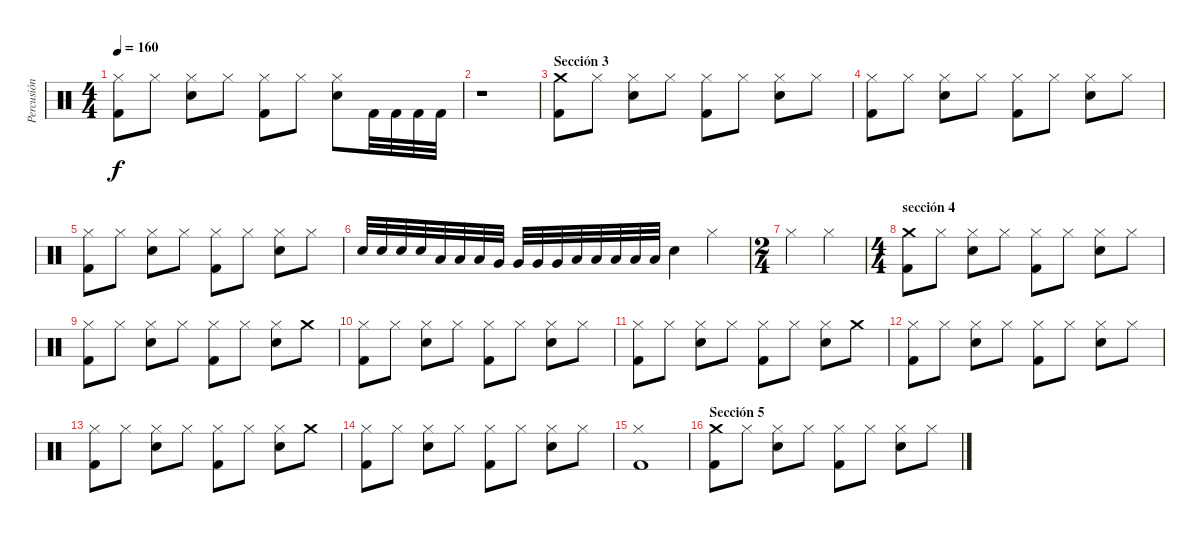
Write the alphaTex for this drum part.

\track ("Percusión" "Percusión") {instrument percussion}
\staff {score}
\articulation defaults
\ts (4 4)
\tempo 160
\clef neutral
\ks c
("Hi-Hat (closed)" "Kick (hit) 2").8{dy f} "Hi-Hat (closed)".8 ("Hi-Hat (closed)" "Snare (hit) 2").8 "Hi-Hat (closed)".8 ("Hi-Hat (closed)" "Kick (hit) 2").8 "Hi-Hat (closed)".8 ("Hi-Hat (closed)" "Snare (hit) 2").8 "Kick (hit) 2".32 "Kick (hit) 2".32 "Kick (hit) 2".32 "Kick (hit) 2".32 |
r.1 |
\section ("" "Sección 3")
("Crash medium (hit)" "Kick (hit) 2").8 "Hi-Hat (closed)".8 ("Hi-Hat (closed)" "Snare (hit) 2").8 "Hi-Hat (closed)".8 ("Hi-Hat (closed)" "Kick (hit) 2").8 "Hi-Hat (closed)".8 ("Hi-Hat (closed)" "Snare (hit) 2").8 "Hi-Hat (closed)".8 |
("Hi-Hat (closed)" "Kick (hit) 2").8 "Hi-Hat (closed)".8 ("Hi-Hat (closed)" "Snare (hit) 2").8 "Hi-Hat (closed)".8 ("Hi-Hat (closed)" "Kick (hit) 2").8 "Hi-Hat (closed)".8 ("Hi-Hat (closed)" "Snare (hit) 2").8 "Hi-Hat (closed)".8 |
("Hi-Hat (closed)" "Kick (hit) 2").8 "Hi-Hat (closed)".8 ("Hi-Hat (closed)" "Snare (hit) 2").8 "Hi-Hat (closed)".8 ("Hi-Hat (closed)" "Kick (hit) 2").8 "Hi-Hat (closed)".8 ("Hi-Hat (closed)" "Snare (hit) 2").8 "Hi-Hat (closed)".8 |
"Snare (hit) 2".32 "Snare (hit) 2".32 "Snare (hit) 2".32 "Snare (hit) 2".32 "Low Tom (hit)".32 "Low Tom (hit)".32 "Low Tom (hit)".32 "Very Low Tom (hit)".32 "Very Low Tom (hit)".32 "Very Low Tom (hit)".32 "Very Low Tom (hit)".32 "Low Floor Tom (hit)".32 "Low Floor Tom (hit)".32 "Low Floor Tom (hit)".32 "Low Floor Tom (hit)".32 "Low Floor Tom (hit)".32 "Snare (hit) 2".4 "Hi-Hat (closed)".4 |
\ts (2 4)
"Hi-Hat (closed)".4 "Hi-Hat (closed)".4 |
\ts (4 4)
\section ("" "sección 4")
("Crash medium (hit)" "Kick (hit) 2").8 "Hi-Hat (closed)".8 ("Hi-Hat (closed)" "Snare (hit) 2").8 "Hi-Hat (closed)".8 ("Hi-Hat (closed)" "Kick (hit) 2").8 "Hi-Hat (closed)".8 ("Hi-Hat (closed)" "Snare (hit) 2").8 "Hi-Hat (closed)".8 |
("Hi-Hat (closed)" "Kick (hit) 2").8 "Hi-Hat (closed)".8 ("Hi-Hat (closed)" "Snare (hit) 2").8 "Hi-Hat (closed)".8 ("Hi-Hat (closed)" "Kick (hit) 2").8 "Hi-Hat (closed)".8 ("Hi-Hat (closed)" "Snare (hit) 2").8 "Crash medium (hit)".8 |
("Hi-Hat (closed)" "Kick (hit) 2").8 "Hi-Hat (closed)".8 ("Hi-Hat (closed)" "Snare (hit) 2").8 "Hi-Hat (closed)".8 ("Hi-Hat (closed)" "Kick (hit) 2").8 "Hi-Hat (closed)".8 ("Hi-Hat (closed)" "Snare (hit) 2").8 "Hi-Hat (closed)".8 |
("Hi-Hat (closed)" "Kick (hit) 2").8 "Hi-Hat (closed)".8 ("Hi-Hat (closed)" "Snare (hit) 2").8 "Hi-Hat (closed)".8 ("Hi-Hat (closed)" "Kick (hit) 2").8 "Hi-Hat (closed)".8 ("Hi-Hat (closed)" "Snare (hit) 2").8 "Crash medium (hit)".8 |
("Hi-Hat (closed)" "Kick (hit) 2").8 "Hi-Hat (closed)".8 ("Hi-Hat (closed)" "Snare (hit) 2").8 "Hi-Hat (closed)".8 ("Hi-Hat (closed)" "Kick (hit) 2").8 "Hi-Hat (closed)".8 ("Hi-Hat (closed)" "Snare (hit) 2").8 "Hi-Hat (closed)".8 |
("Hi-Hat (closed)" "Kick (hit) 2").8 "Hi-Hat (closed)".8 ("Hi-Hat (closed)" "Snare (hit) 2").8 "Hi-Hat (closed)".8 ("Hi-Hat (closed)" "Kick (hit) 2").8 "Hi-Hat (closed)".8 ("Hi-Hat (closed)" "Snare (hit) 2").8 "Crash medium (hit)".8 |
("Hi-Hat (closed)" "Kick (hit) 2").8 "Hi-Hat (closed)".8 ("Hi-Hat (closed)" "Snare (hit) 2").8 "Hi-Hat (closed)".8 ("Hi-Hat (closed)" "Kick (hit) 2").8 "Hi-Hat (closed)".8 ("Hi-Hat (closed)" "Snare (hit) 2").8 "Hi-Hat (closed)".8 |
("Kick (hit) 2" "Hi-Hat (closed)").1 |
\section ("" "Sección 5")
("Crash medium (hit)" "Kick (hit) 2").8 "Hi-Hat (closed)".8 ("Hi-Hat (closed)" "Snare (hit) 2").8 "Hi-Hat (closed)".8 ("Hi-Hat (closed)" "Kick (hit) 2").8 "Hi-Hat (closed)".8 ("Hi-Hat (closed)" "Snare (hit) 2").8 "Hi-Hat (closed)".8
